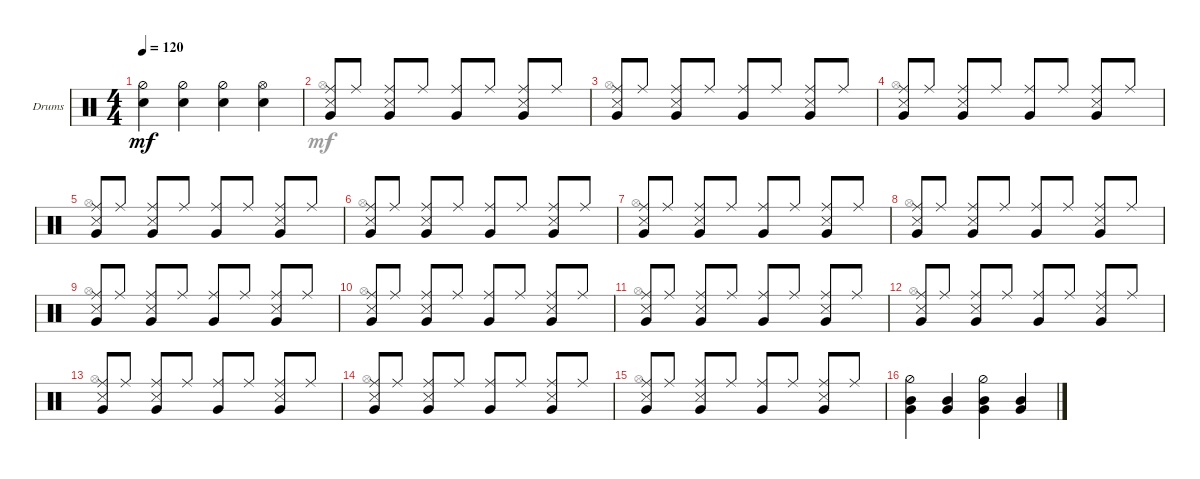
\defaultSystemsLayout 4
\bracketExtendMode groupsimilarinstruments
\firstSystemTrackNameOrientation horizontal
\otherSystemsTrackNameOrientation horizontal
\track ("Drumkit" "Drums") {instrument percussion}
\staff {score}
\articulation defaults
\voice
\ts (4 4)
\tempo 120
\clef neutral
\ks c
("Snare (hit) 2" "Hi-Hat (half)").4{dy mf} ("Snare (hit) 2" "Hi-Hat (half)").4 ("Snare (hit) 2" "Hi-Hat (half)").4 ("Snare (hit) 2" "Hi-Hat (open)").4 |
("Ride (middle)" "Snare (side stick) 3" "Very Low Tom (hit)").8 "Ride (middle)".8 ("Ride (middle)" "Snare (side stick) 3" "Very Low Tom (hit)").8 "Ride (middle)".8 ("Ride (middle)" "Very Low Tom (hit)").8 "Ride (middle)".8 ("Ride (middle)" "Snare (side stick) 3" "Very Low Tom (hit)").8 "Ride (middle)".8 |
("Ride (middle)" "Snare (side stick) 3" "Very Low Tom (hit)").8 "Ride (middle)".8 ("Ride (middle)" "Snare (side stick) 3" "Very Low Tom (hit)").8 "Ride (middle)".8 ("Ride (middle)" "Very Low Tom (hit)").8 "Ride (middle)".8 ("Ride (middle)" "Snare (side stick) 3" "Very Low Tom (hit)").8 "Ride (middle)".8 |
("Ride (middle)" "Snare (side stick) 3" "Very Low Tom (hit)").8 "Ride (middle)".8 ("Ride (middle)" "Snare (side stick) 3" "Very Low Tom (hit)").8 "Ride (middle)".8 ("Ride (middle)" "Very Low Tom (hit)").8 "Ride (middle)".8 ("Ride (middle)" "Snare (side stick) 3" "Very Low Tom (hit)").8 "Ride (middle)".8 |
("Ride (middle)" "Snare (side stick) 3" "Very Low Tom (hit)").8 "Ride (middle)".8 ("Ride (middle)" "Snare (side stick) 3" "Very Low Tom (hit)").8 "Ride (middle)".8 ("Ride (middle)" "Very Low Tom (hit)").8 "Ride (middle)".8 ("Ride (middle)" "Snare (side stick) 3" "Very Low Tom (hit)").8 "Ride (middle)".8 |
("Ride (middle)" "Snare (side stick) 3" "Very Low Tom (hit)").8 "Ride (middle)".8 ("Ride (middle)" "Snare (side stick) 3" "Very Low Tom (hit)").8 "Ride (middle)".8 ("Ride (middle)" "Very Low Tom (hit)").8 "Ride (middle)".8 ("Ride (middle)" "Snare (side stick) 3" "Very Low Tom (hit)").8 "Ride (middle)".8 |
("Ride (middle)" "Snare (side stick) 3" "Very Low Tom (hit)").8 "Ride (middle)".8 ("Ride (middle)" "Snare (side stick) 3" "Very Low Tom (hit)").8 "Ride (middle)".8 ("Ride (middle)" "Very Low Tom (hit)").8 "Ride (middle)".8 ("Ride (middle)" "Snare (side stick) 3" "Very Low Tom (hit)").8 "Ride (middle)".8 |
("Ride (middle)" "Snare (side stick) 3" "Very Low Tom (hit)").8 "Ride (middle)".8 ("Ride (middle)" "Snare (side stick) 3" "Very Low Tom (hit)").8 "Ride (middle)".8 ("Ride (middle)" "Very Low Tom (hit)").8 "Ride (middle)".8 ("Ride (middle)" "Snare (side stick) 3" "Very Low Tom (hit)").8 "Ride (middle)".8 |
("Ride (middle)" "Snare (side stick) 3" "Very Low Tom (hit)").8 "Ride (middle)".8 ("Ride (middle)" "Snare (side stick) 3" "Very Low Tom (hit)").8 "Ride (middle)".8 ("Ride (middle)" "Very Low Tom (hit)").8 "Ride (middle)".8 ("Ride (middle)" "Snare (side stick) 3" "Very Low Tom (hit)").8 "Ride (middle)".8 |
("Ride (middle)" "Snare (side stick) 3" "Very Low Tom (hit)").8 "Ride (middle)".8 ("Ride (middle)" "Snare (side stick) 3" "Very Low Tom (hit)").8 "Ride (middle)".8 ("Ride (middle)" "Very Low Tom (hit)").8 "Ride (middle)".8 ("Ride (middle)" "Snare (side stick) 3" "Very Low Tom (hit)").8 "Ride (middle)".8 |
("Ride (middle)" "Snare (side stick) 3" "Very Low Tom (hit)").8 "Ride (middle)".8 ("Ride (middle)" "Snare (side stick) 3" "Very Low Tom (hit)").8 "Ride (middle)".8 ("Ride (middle)" "Very Low Tom (hit)").8 "Ride (middle)".8 ("Ride (middle)" "Snare (side stick) 3" "Very Low Tom (hit)").8 "Ride (middle)".8 |
("Ride (middle)" "Snare (side stick) 3" "Very Low Tom (hit)").8 "Ride (middle)".8 ("Ride (middle)" "Snare (side stick) 3" "Very Low Tom (hit)").8 "Ride (middle)".8 ("Ride (middle)" "Very Low Tom (hit)").8 "Ride (middle)".8 ("Ride (middle)" "Snare (side stick) 3" "Very Low Tom (hit)").8 "Ride (middle)".8 |
("Ride (middle)" "Snare (side stick) 3" "Very Low Tom (hit)").8 "Ride (middle)".8 ("Ride (middle)" "Snare (side stick) 3" "Very Low Tom (hit)").8 "Ride (middle)".8 ("Ride (middle)" "Very Low Tom (hit)").8 "Ride (middle)".8 ("Ride (middle)" "Snare (side stick) 3" "Very Low Tom (hit)").8 "Ride (middle)".8 |
("Ride (middle)" "Snare (side stick) 3" "Very Low Tom (hit)").8 "Ride (middle)".8 ("Ride (middle)" "Snare (side stick) 3" "Very Low Tom (hit)").8 "Ride (middle)".8 ("Ride (middle)" "Very Low Tom (hit)").8 "Ride (middle)".8 ("Ride (middle)" "Snare (side stick) 3" "Very Low Tom (hit)").8 "Ride (middle)".8 |
("Ride (middle)" "Snare (side stick) 3" "Very Low Tom (hit)").8 "Ride (middle)".8 ("Ride (middle)" "Snare (side stick) 3" "Very Low Tom (hit)").8 "Ride (middle)".8 ("Ride (middle)" "Very Low Tom (hit)").8 "Ride (middle)".8 ("Ride (middle)" "Snare (side stick) 3" "Very Low Tom (hit)").8 "Ride (middle)".8 |
("Mid Tom (hit)" "Very Low Tom (hit)" "Hi-Hat (half)").4 ("Mid Tom (hit)" "Very Low Tom (hit)").4 ("Mid Tom (hit)" "Very Low Tom (hit)" "Hi-Hat (half)").4 ("Mid Tom (hit)" "Very Low Tom (hit)").4
\voice
\clef neutral
\ottava regular
\simile none
\ks c
|
"Hi-Hat (open)".1 |
"Hi-Hat (open)".1 |
"Hi-Hat (open)".1 |
"Hi-Hat (open)".1 |
"Hi-Hat (open)".1 |
"Hi-Hat (open)".1 |
"Hi-Hat (open)".1 |
"Hi-Hat (open)".1 |
"Hi-Hat (open)".1 |
"Hi-Hat (open)".1 |
"Hi-Hat (open)".1 |
"Hi-Hat (open)".1 |
"Hi-Hat (open)".1 |
"Hi-Hat (open)".1 |
